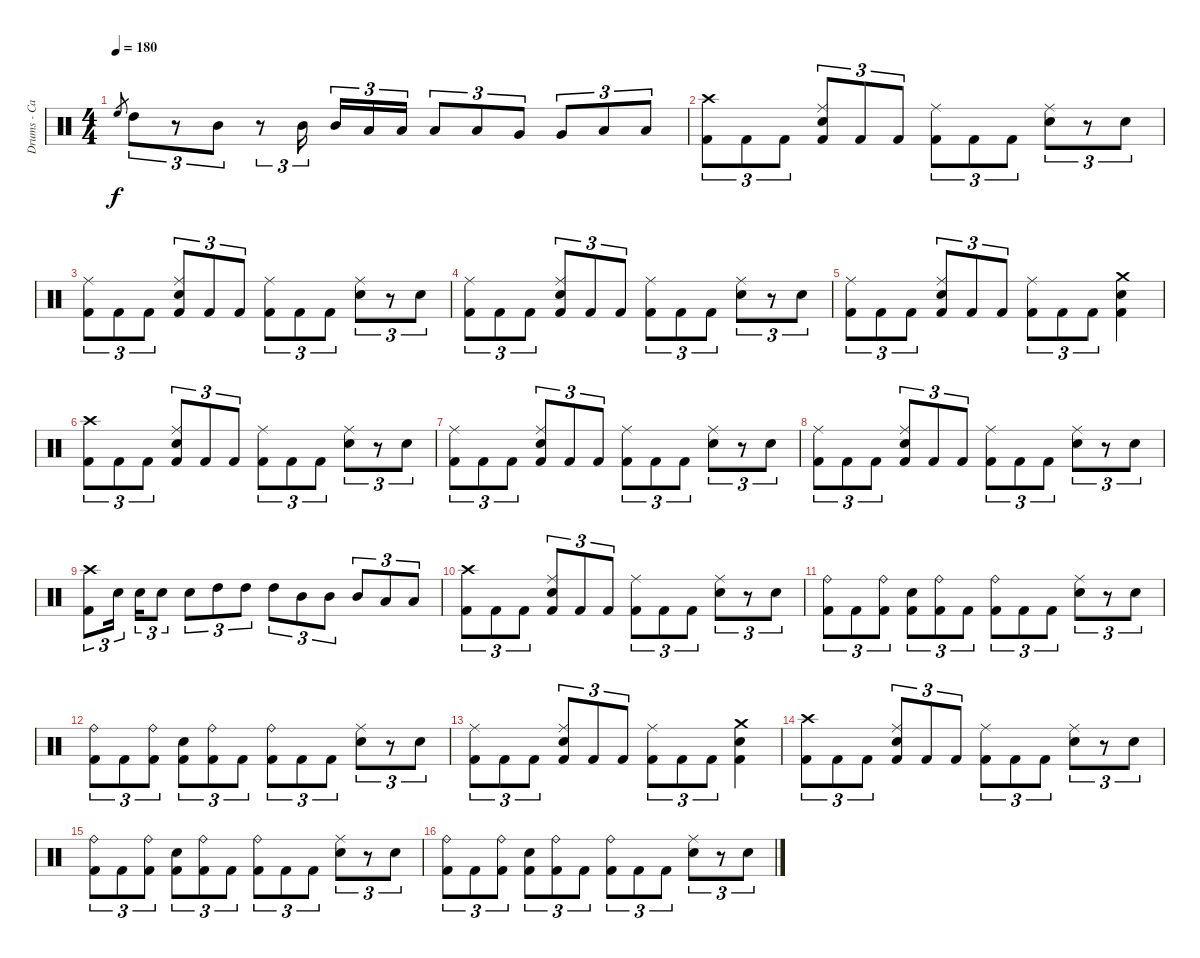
\track ("Drums - Carlos Cruz" "Drums - Ca") {instrument percussion}
\staff {score}
\articulation defaults
\ts (4 4)
\tempo 180
\clef neutral
\ks c "High Floor Tom (hit)".8{gr dy f} "High Tom (hit)".8{tu (3 2)}
r.8{tu (3 2)} "Mid Tom (hit)".8{tu (3 2)} r.8{tu (3 2)} "Mid Tom (hit)".16{tu (3 2) beam splitsecondary} "Mid Tom (hit)".16{tu (3 2)} "Low Tom (hit)".16{tu (3 2)} "Low Tom (hit)".16{tu (3 2)} "Low Tom (hit)".8{tu (3 2)} "Low Tom (hit)".8{tu (3 2)} "Very Low Tom (hit)".8{tu (3 2)} "Very Low Tom (hit)".8{tu (3 2)} "Low Floor Tom (hit)".8{tu (3 2)} "Low Floor Tom (hit)".8{tu (3 2)} |
("Crash high (hit)" "Kick (hit) 2").8{tu (3 2)} "Kick (hit) 2".8{tu (3 2)} "Kick (hit) 2".8{tu (3 2)} ("Ride (middle)" "Snare (hit) 2" "Kick (hit) 2").8{tu (3 2)} "Kick (hit) 2".8{tu (3 2)} "Kick (hit) 2".8{tu (3 2)} ("Ride (middle)" "Kick (hit) 2").8{tu (3 2)} "Kick (hit) 2".8{tu (3 2)} "Kick (hit) 2".8{tu (3 2)} ("Ride (middle)" "Snare (hit) 2").8{tu (3 2)} r.8{tu (3 2)} "Snare (hit) 2".8{tu (3 2)} |
("Ride (middle)" "Kick (hit) 2").8{tu (3 2)} "Kick (hit) 2".8{tu (3 2)} "Kick (hit) 2".8{tu (3 2)} ("Ride (middle)" "Snare (hit) 2" "Kick (hit) 2").8{tu (3 2)} "Kick (hit) 2".8{tu (3 2)} "Kick (hit) 2".8{tu (3 2)} ("Ride (middle)" "Kick (hit) 2").8{tu (3 2)} "Kick (hit) 2".8{tu (3 2)} "Kick (hit) 2".8{tu (3 2)} ("Ride (middle)" "Snare (hit) 2").8{tu (3 2)} r.8{tu (3 2)} "Snare (hit) 2".8{tu (3 2)} |
("Ride (middle)" "Kick (hit) 2").8{tu (3 2)} "Kick (hit) 2".8{tu (3 2)} "Kick (hit) 2".8{tu (3 2)} ("Ride (middle)" "Snare (hit) 2" "Kick (hit) 2").8{tu (3 2)} "Kick (hit) 2".8{tu (3 2)} "Kick (hit) 2".8{tu (3 2)} ("Ride (middle)" "Kick (hit) 2").8{tu (3 2)} "Kick (hit) 2".8{tu (3 2)} "Kick (hit) 2".8{tu (3 2)} ("Ride (middle)" "Snare (hit) 2").8{tu (3 2)} r.8{tu (3 2)} "Snare (hit) 2".8{tu (3 2)} |
("Ride (middle)" "Kick (hit) 2").8{tu (3 2)} "Kick (hit) 2".8{tu (3 2)} "Kick (hit) 2".8{tu (3 2)} ("Ride (middle)" "Snare (hit) 2" "Kick (hit) 2").8{tu (3 2)} "Kick (hit) 2".8{tu (3 2)} "Kick (hit) 2".8{tu (3 2)} ("Ride (middle)" "Kick (hit) 2").8{tu (3 2)} "Kick (hit) 2".8{tu (3 2)} "Kick (hit) 2".8{tu (3 2)} ("Crash medium (hit)" "Snare (hit) 2" "Kick (hit) 2").4 |
("Crash high (hit)" "Kick (hit) 2").8{tu (3 2)} "Kick (hit) 2".8{tu (3 2)} "Kick (hit) 2".8{tu (3 2)} ("Ride (middle)" "Snare (hit) 2" "Kick (hit) 2").8{tu (3 2)} "Kick (hit) 2".8{tu (3 2)} "Kick (hit) 2".8{tu (3 2)} ("Ride (middle)" "Kick (hit) 2").8{tu (3 2)} "Kick (hit) 2".8{tu (3 2)} "Kick (hit) 2".8{tu (3 2)} ("Ride (middle)" "Snare (hit) 2").8{tu (3 2)} r.8{tu (3 2)} "Snare (hit) 2".8{tu (3 2)} |
("Ride (middle)" "Kick (hit) 2").8{tu (3 2)} "Kick (hit) 2".8{tu (3 2)} "Kick (hit) 2".8{tu (3 2)} ("Ride (middle)" "Snare (hit) 2" "Kick (hit) 2").8{tu (3 2)} "Kick (hit) 2".8{tu (3 2)} "Kick (hit) 2".8{tu (3 2)} ("Ride (middle)" "Kick (hit) 2").8{tu (3 2)} "Kick (hit) 2".8{tu (3 2)} "Kick (hit) 2".8{tu (3 2)} ("Ride (middle)" "Snare (hit) 2").8{tu (3 2)} r.8{tu (3 2)} "Snare (hit) 2".8{tu (3 2)} |
("Ride (middle)" "Kick (hit) 2").8{tu (3 2)} "Kick (hit) 2".8{tu (3 2)} "Kick (hit) 2".8{tu (3 2)} ("Ride (middle)" "Snare (hit) 2" "Kick (hit) 2").8{tu (3 2)} "Kick (hit) 2".8{tu (3 2)} "Kick (hit) 2".8{tu (3 2)} ("Ride (middle)" "Kick (hit) 2").8{tu (3 2)} "Kick (hit) 2".8{tu (3 2)} "Kick (hit) 2".8{tu (3 2)} ("Ride (middle)" "Snare (hit) 2").8{tu (3 2)} r.8{tu (3 2)} "Snare (hit) 2".8{tu (3 2)} |
("Crash high (hit)" "Kick (hit) 2").8{tu (3 2)} "Snare (hit) 2".16{tu (3 2) beam splitsecondary} "Snare (hit) 2".16{tu (3 2)} "Snare (hit) 2".8{tu (3 2)} "Snare (hit) 2".8{tu (3 2)} "High Tom (hit)".8{tu (3 2)} "High Tom (hit)".8{tu (3 2)} "High Tom (hit)".8{tu (3 2)} "Mid Tom (hit)".8{tu (3 2)} "Mid Tom (hit)".8{tu (3 2)} "Mid Tom (hit)".8{tu (3 2)} "Low Tom (hit)".8{tu (3 2)} "Low Tom (hit)".8{tu (3 2)} |
("Crash high (hit)" "Kick (hit) 2").8{tu (3 2)} "Kick (hit) 2".8{tu (3 2)} "Kick (hit) 2".8{tu (3 2)} ("Ride (middle)" "Snare (hit) 2" "Kick (hit) 2").8{tu (3 2)} "Kick (hit) 2".8{tu (3 2)} "Kick (hit) 2".8{tu (3 2)} ("Ride (middle)" "Kick (hit) 2").8{tu (3 2)} "Kick (hit) 2".8{tu (3 2)} "Kick (hit) 2".8{tu (3 2)} ("Ride (middle)" "Snare (hit) 2").8{tu (3 2)} r.8{tu (3 2)} "Snare (hit) 2".8{tu (3 2)} |
("Ride (bell)" "Kick (hit) 2").8{tu (3 2)} "Kick (hit) 2".8{tu (3 2)} ("Ride (bell)" "Kick (hit) 2").8{tu (3 2)} ("Snare (hit) 2" "Kick (hit) 2").8{tu (3 2)} ("Ride (bell)" "Kick (hit) 2").8{tu (3 2)} "Kick (hit) 2".8{tu (3 2)} ("Ride (bell)" "Kick (hit) 2").8{tu (3 2)} "Kick (hit) 2".8{tu (3 2)} "Kick (hit) 2".8{tu (3 2)} ("Ride (middle)" "Snare (hit) 2").8{tu (3 2)} r.8{tu (3 2)} "Snare (hit) 2".8{tu (3 2)} |
("Ride (bell)" "Kick (hit) 2").8{tu (3 2)} "Kick (hit) 2".8{tu (3 2)} ("Ride (bell)" "Kick (hit) 2").8{tu (3 2)} ("Snare (hit) 2" "Kick (hit) 2").8{tu (3 2)} ("Ride (bell)" "Kick (hit) 2").8{tu (3 2)} "Kick (hit) 2".8{tu (3 2)} ("Ride (bell)" "Kick (hit) 2").8{tu (3 2)} "Kick (hit) 2".8{tu (3 2)} "Kick (hit) 2".8{tu (3 2)} ("Ride (middle)" "Snare (hit) 2").8{tu (3 2)} r.8{tu (3 2)} "Snare (hit) 2".8{tu (3 2)} |
("Ride (middle)" "Kick (hit) 2").8{tu (3 2)} "Kick (hit) 2".8{tu (3 2)} "Kick (hit) 2".8{tu (3 2)} ("Ride (middle)" "Snare (hit) 2" "Kick (hit) 2").8{tu (3 2)} "Kick (hit) 2".8{tu (3 2)} "Kick (hit) 2".8{tu (3 2)} ("Ride (middle)" "Kick (hit) 2").8{tu (3 2)} "Kick (hit) 2".8{tu (3 2)} "Kick (hit) 2".8{tu (3 2)} ("Crash medium (hit)" "Snare (hit) 2" "Kick (hit) 2").4 |
("Crash high (hit)" "Kick (hit) 2").8{tu (3 2)} "Kick (hit) 2".8{tu (3 2)} "Kick (hit) 2".8{tu (3 2)} ("Ride (middle)" "Snare (hit) 2" "Kick (hit) 2").8{tu (3 2)} "Kick (hit) 2".8{tu (3 2)} "Kick (hit) 2".8{tu (3 2)} ("Ride (middle)" "Kick (hit) 2").8{tu (3 2)} "Kick (hit) 2".8{tu (3 2)} "Kick (hit) 2".8{tu (3 2)} ("Ride (middle)" "Snare (hit) 2").8{tu (3 2)} r.8{tu (3 2)} "Snare (hit) 2".8{tu (3 2)} |
("Ride (bell)" "Kick (hit) 2").8{tu (3 2)} "Kick (hit) 2".8{tu (3 2)} ("Ride (bell)" "Kick (hit) 2").8{tu (3 2)} ("Snare (hit) 2" "Kick (hit) 2").8{tu (3 2)} ("Ride (bell)" "Kick (hit) 2").8{tu (3 2)} "Kick (hit) 2".8{tu (3 2)} ("Ride (bell)" "Kick (hit) 2").8{tu (3 2)} "Kick (hit) 2".8{tu (3 2)} "Kick (hit) 2".8{tu (3 2)} ("Ride (middle)" "Snare (hit) 2").8{tu (3 2)} r.8{tu (3 2)} "Snare (hit) 2".8{tu (3 2)} |
("Ride (bell)" "Kick (hit) 2").8{tu (3 2)} "Kick (hit) 2".8{tu (3 2)} ("Ride (bell)" "Kick (hit) 2").8{tu (3 2)} ("Snare (hit) 2" "Kick (hit) 2").8{tu (3 2)} ("Ride (bell)" "Kick (hit) 2").8{tu (3 2)} "Kick (hit) 2".8{tu (3 2)} ("Ride (bell)" "Kick (hit) 2").8{tu (3 2)} "Kick (hit) 2".8{tu (3 2)} "Kick (hit) 2".8{tu (3 2)} ("Ride (middle)" "Snare (hit) 2").8{tu (3 2)} r.8{tu (3 2)} "Snare (hit) 2".8{tu (3 2)}
